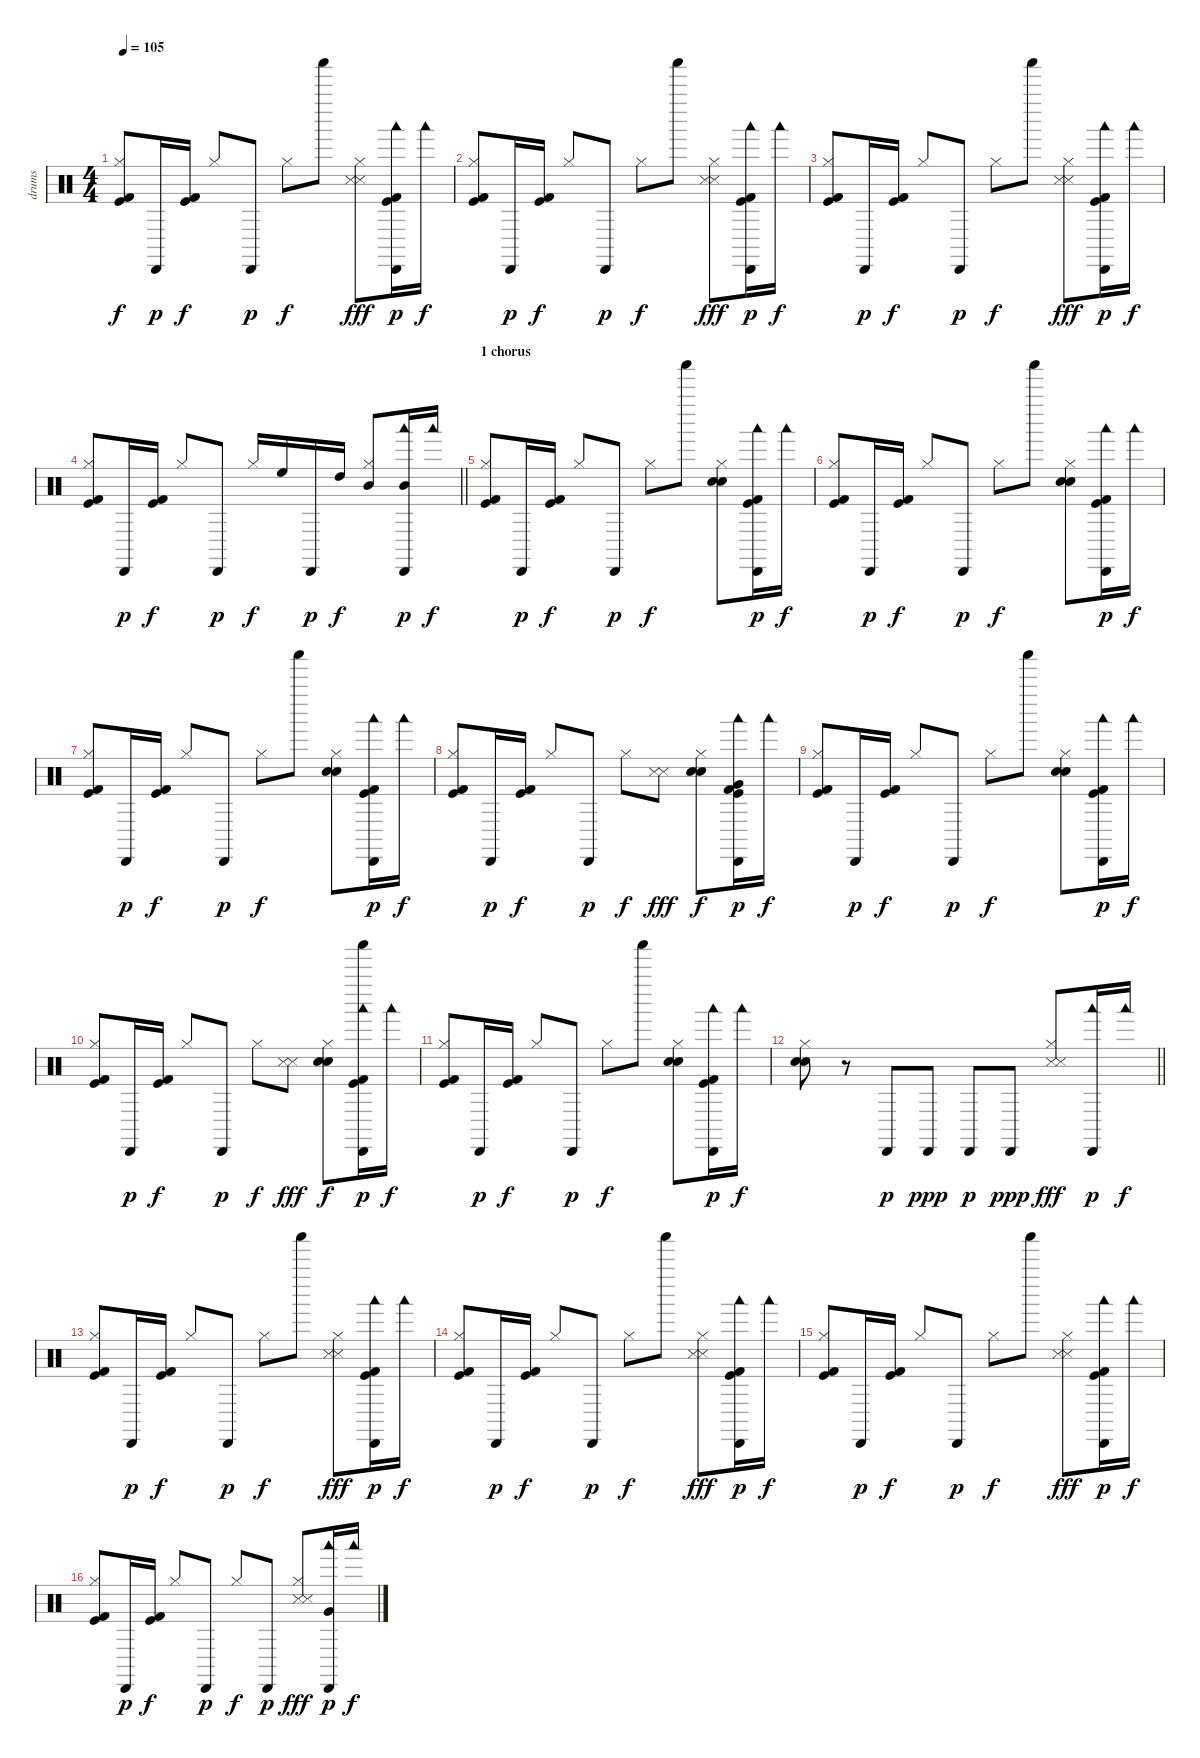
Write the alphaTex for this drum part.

\track ("drums" "drums") {instrument percussion}
\staff {score}
\articulation defaults
\ts (4 4)
\tempo 105
\clef neutral
\ks c
("Hi-Hat (closed)" "Kick (hit)" "Kick (hit) 2").8{dy f} "Cabasa (hit)".16{dy p} ("Kick (hit)" "Kick (hit) 2").16{dy f} "Hi-Hat (closed)".8 "Cabasa (hit)".8{dy p} "Hi-Hat (closed)".8{dy f} "Shaker (hit)".8 ("Hi-Hat (closed)" "Snare (side stick) 3" "Snare (side stick) 3").8{dy fff} ("Cabasa (hit)" "Woodblock low (hit)" "Kick (hit)" "Kick (hit) 2").16{dy p} "Woodblock low (hit)".16{dy f} |
("Hi-Hat (closed)" "Kick (hit)" "Kick (hit) 2").8 "Cabasa (hit)".16{dy p} ("Kick (hit)" "Kick (hit) 2").16{dy f} "Hi-Hat (closed)".8 "Cabasa (hit)".8{dy p} "Hi-Hat (closed)".8{dy f} "Shaker (hit)".8 ("Hi-Hat (closed)" "Snare (side stick) 3" "Snare (side stick) 3").8{dy fff} ("Cabasa (hit)" "Woodblock low (hit)" "Kick (hit)" "Kick (hit) 2").16{dy p} "Woodblock low (hit)".16{dy f} |
("Hi-Hat (closed)" "Kick (hit)" "Kick (hit) 2").8 "Cabasa (hit)".16{dy p} ("Kick (hit)" "Kick (hit) 2").16{dy f} "Hi-Hat (closed)".8 "Cabasa (hit)".8{dy p} "Hi-Hat (closed)".8{dy f} "Shaker (hit)".8 ("Hi-Hat (closed)" "Snare (side stick) 3" "Snare (side stick) 3").8{dy fff} ("Cabasa (hit)" "Woodblock low (hit)" "Kick (hit)" "Kick (hit) 2").16{dy p} "Woodblock low (hit)".16{dy f} |
\barLineRight lightlight
("Hi-Hat (closed)" "Kick (hit)" "Kick (hit) 2").8 "Cabasa (hit)".16{dy p} ("Kick (hit)" "Kick (hit) 2").16{dy f} "Hi-Hat (closed)".8 "Cabasa (hit)".8{dy p} "Hi-Hat (closed)".16{dy f} "High Floor Tom (hit)".16{balance 2} "Cabasa (hit)".16{dy p} "High Tom (hit)".16{dy f} ("Hi-Hat (closed)" "Mid Tom (hit)").8{balance 14} ("Cabasa (hit)" "Woodblock low (hit)" "Mid Tom (hit)").16{dy p} "Woodblock low (hit)".16{dy f} |
\section ("" "1 chorus")
("Hi-Hat (closed)" "Kick (hit)" "Kick (hit) 2").8{balance 8} "Cabasa (hit)".16{dy p} ("Kick (hit)" "Kick (hit) 2").16{dy f} "Hi-Hat (closed)".8 "Cabasa (hit)".8{dy p} "Hi-Hat (closed)".8{dy f} "Shaker (hit)".8 ("Hi-Hat (closed)" "Snare (hit) 2" "Electric Snare (hit)").8{volume 16} ("Cabasa (hit)" "Woodblock low (hit)" "Kick (hit)" "Kick (hit) 2").16{dy p volume 13} "Woodblock low (hit)".16{dy f} |
("Hi-Hat (closed)" "Kick (hit)" "Kick (hit) 2").8{balance 8} "Cabasa (hit)".16{dy p} ("Kick (hit)" "Kick (hit) 2").16{dy f} "Hi-Hat (closed)".8 "Cabasa (hit)".8{dy p} "Hi-Hat (closed)".8{dy f} "Shaker (hit)".8 ("Hi-Hat (closed)" "Snare (hit) 2" "Electric Snare (hit)").8{volume 16} ("Cabasa (hit)" "Woodblock low (hit)" "Kick (hit)" "Kick (hit) 2").16{dy p volume 13} "Woodblock low (hit)".16{dy f} |
("Hi-Hat (closed)" "Kick (hit)" "Kick (hit) 2").8{balance 8} "Cabasa (hit)".16{dy p} ("Kick (hit)" "Kick (hit) 2").16{dy f} "Hi-Hat (closed)".8 "Cabasa (hit)".8{dy p} "Hi-Hat (closed)".8{dy f} "Shaker (hit)".8 ("Hi-Hat (closed)" "Snare (hit) 2" "Electric Snare (hit)").8{volume 16} ("Cabasa (hit)" "Woodblock low (hit)" "Kick (hit)" "Kick (hit) 2").16{dy p volume 13} "Woodblock low (hit)".16{dy f} |
("Hi-Hat (closed)" "Kick (hit)" "Kick (hit) 2").8{balance 8} "Cabasa (hit)".16{dy p} ("Kick (hit)" "Kick (hit) 2").16{dy f} "Hi-Hat (closed)".8 "Cabasa (hit)".8{dy p} "Hi-Hat (closed)".8{dy f} ("Snare (side stick) 3" "Snare (side stick) 3").8{dy fff} ("Hi-Hat (closed)" "Snare (hit) 2" "Electric Snare (hit)").8{dy f volume 16} ("Cabasa (hit)" "Woodblock low (hit)" "Very Low Tom (hit)" "Kick (hit)" "Kick (hit) 2").16{dy p volume 13} "Woodblock low (hit)".16{dy f} |
("Hi-Hat (closed)" "Kick (hit)" "Kick (hit) 2").8{balance 8} "Cabasa (hit)".16{dy p} ("Kick (hit)" "Kick (hit) 2").16{dy f} "Hi-Hat (closed)".8 "Cabasa (hit)".8{dy p} "Hi-Hat (closed)".8{dy f} "Shaker (hit)".8 ("Hi-Hat (closed)" "Snare (hit) 2" "Electric Snare (hit)").8{volume 16} ("Cabasa (hit)" "Woodblock low (hit)" "Kick (hit)" "Kick (hit) 2").16{dy p volume 13} "Woodblock low (hit)".16{dy f} |
("Hi-Hat (closed)" "Kick (hit)" "Kick (hit) 2").8{balance 8} "Cabasa (hit)".16{dy p} ("Kick (hit)" "Kick (hit) 2").16{dy f} "Hi-Hat (closed)".8 "Cabasa (hit)".8{dy p} "Hi-Hat (closed)".8{dy f} ("Snare (side stick) 3" "Snare (side stick) 3").8{dy fff} ("Hi-Hat (closed)" "Snare (hit) 2" "Electric Snare (hit)").8{dy f volume 16} ("Cabasa (hit)" "Shaker (hit)" "Woodblock low (hit)" "Kick (hit)" "Kick (hit) 2").16{dy p volume 13} "Woodblock low (hit)".16{dy f} |
("Hi-Hat (closed)" "Kick (hit)" "Kick (hit) 2").8{balance 8} "Cabasa (hit)".16{dy p} ("Kick (hit)" "Kick (hit) 2").16{dy f} "Hi-Hat (closed)".8 "Cabasa (hit)".8{dy p} "Hi-Hat (closed)".8{dy f} "Shaker (hit)".8 ("Hi-Hat (closed)" "Snare (hit) 2" "Electric Snare (hit)").8{volume 16} ("Cabasa (hit)" "Woodblock low (hit)" "Kick (hit)" "Kick (hit) 2").16{dy p volume 13} "Woodblock low (hit)".16{dy f} |
\barLineRight lightlight
("Hi-Hat (closed)" "Snare (hit) 2" "Electric Snare (hit)").8{volume 16} r.8{volume 13} "Cabasa (hit)".8{dy p} "Cabasa (hit)".8{dy ppp} "Cabasa (hit)".8{dy p} "Cabasa (hit)".8{dy ppp} ("Hi-Hat (closed)" "Snare (side stick) 3" "Snare (side stick) 3").8{dy fff} ("Cabasa (hit)" "Woodblock low (hit)").16{dy p} "Woodblock low (hit)".16{dy f} |
\section ("" "")
("Hi-Hat (closed)" "Kick (hit)" "Kick (hit) 2").8 "Cabasa (hit)".16{dy p} ("Kick (hit)" "Kick (hit) 2").16{dy f} "Hi-Hat (closed)".8 "Cabasa (hit)".8{dy p} "Hi-Hat (closed)".8{dy f} "Shaker (hit)".8 ("Hi-Hat (closed)" "Snare (side stick) 3" "Snare (side stick) 3").8{dy fff} ("Cabasa (hit)" "Woodblock low (hit)" "Kick (hit)" "Kick (hit) 2").16{dy p} "Woodblock low (hit)".16{dy f} |
("Hi-Hat (closed)" "Kick (hit)" "Kick (hit) 2").8 "Cabasa (hit)".16{dy p} ("Kick (hit)" "Kick (hit) 2").16{dy f} "Hi-Hat (closed)".8 "Cabasa (hit)".8{dy p} "Hi-Hat (closed)".8{dy f} "Shaker (hit)".8 ("Hi-Hat (closed)" "Snare (side stick) 3" "Snare (side stick) 3").8{dy fff} ("Cabasa (hit)" "Woodblock low (hit)" "Kick (hit)" "Kick (hit) 2").16{dy p} "Woodblock low (hit)".16{dy f} |
("Hi-Hat (closed)" "Kick (hit)" "Kick (hit) 2").8 "Cabasa (hit)".16{dy p} ("Kick (hit)" "Kick (hit) 2").16{dy f} "Hi-Hat (closed)".8 "Cabasa (hit)".8{dy p} "Hi-Hat (closed)".8{dy f} "Shaker (hit)".8 ("Hi-Hat (closed)" "Snare (side stick) 3" "Snare (side stick) 3").8{dy fff} ("Cabasa (hit)" "Woodblock low (hit)" "Kick (hit)" "Kick (hit) 2").16{dy p} "Woodblock low (hit)".16{dy f} |
("Hi-Hat (closed)" "Kick (hit)" "Kick (hit) 2").8 "Cabasa (hit)".16{dy p} ("Kick (hit)" "Kick (hit) 2").16{dy f} "Hi-Hat (closed)".8 "Cabasa (hit)".8{dy p} "Hi-Hat (closed)".8{dy f} "Cabasa (hit)".8{dy p} ("Hi-Hat (closed)" "Snare (side stick) 3" "Snare (side stick) 3").8{dy fff} ("Cabasa (hit)" "Woodblock low (hit)" "Very Low Tom (hit)").16{dy p} "Woodblock low (hit)".16{dy f}
